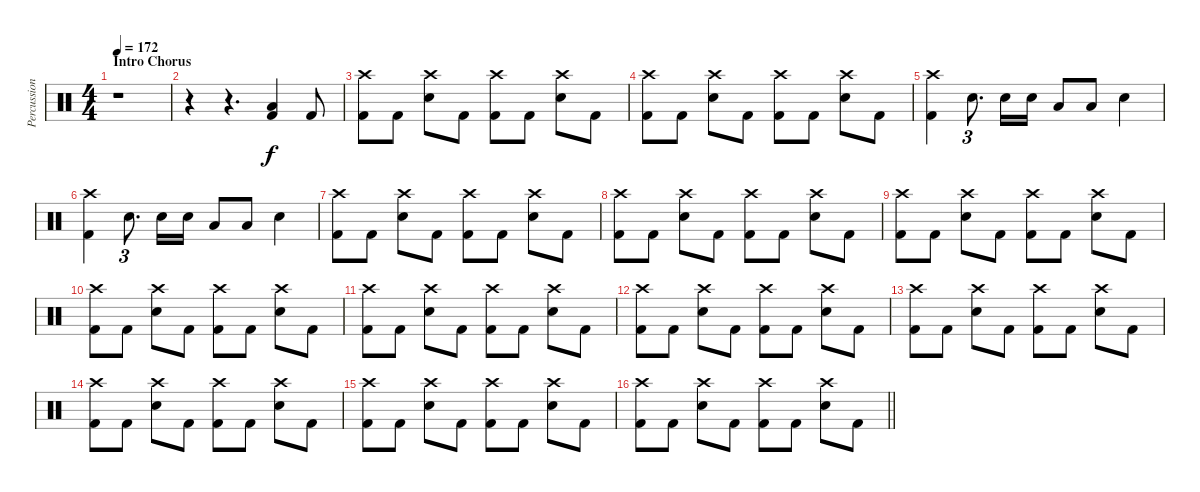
\track ("Percussion" "Percussion") {instrument percussion}
\staff {score}
\articulation defaults
\ts (4 4)
\section ("" "Intro Chorus")
\tempo 172
\clef neutral
\ks c
r.1{dy f} |
r.4 r.4{d} ("Low Tom (hit)" "Kick (hit) 2").4 "Kick (hit) 2".8 |
("Crash high (hit)" "Kick (hit) 2").8 "Kick (hit) 2".8 ("Crash high (hit)" "Electric Snare (hit)").8 "Kick (hit) 2".8 ("Crash high (hit)" "Kick (hit) 2").8 "Kick (hit) 2".8 ("Crash high (hit)" "Electric Snare (hit)").8 "Kick (hit) 2".8 |
("Crash high (hit)" "Kick (hit) 2").8 "Kick (hit) 2".8 ("Crash high (hit)" "Electric Snare (hit)").8 "Kick (hit) 2".8 ("Crash high (hit)" "Kick (hit) 2").8 "Kick (hit) 2".8 ("Crash high (hit)" "Electric Snare (hit)").8 "Kick (hit) 2".8 |
("Crash high (hit)" "Kick (hit) 2").4 "Electric Snare (hit)".8{d tu (3 2)} "Electric Snare (hit)".16 "Electric Snare (hit)".16 "Low Tom (hit)".8 "Low Tom (hit)".8 "Electric Snare (hit)".4 |
("Crash high (hit)" "Kick (hit) 2").4 "Electric Snare (hit)".8{d tu (3 2)} "Electric Snare (hit)".16 "Electric Snare (hit)".16 "Low Tom (hit)".8 "Low Tom (hit)".8 "Electric Snare (hit)".4 |
("Crash high (hit)" "Kick (hit) 2").8 "Kick (hit) 2".8 ("Crash high (hit)" "Electric Snare (hit)").8 "Kick (hit) 2".8 ("Crash high (hit)" "Kick (hit) 2").8 "Kick (hit) 2".8 ("Crash high (hit)" "Electric Snare (hit)").8 "Kick (hit) 2".8 |
("Crash high (hit)" "Kick (hit) 2").8 "Kick (hit) 2".8 ("Crash high (hit)" "Electric Snare (hit)").8 "Kick (hit) 2".8 ("Crash high (hit)" "Kick (hit) 2").8 "Kick (hit) 2".8 ("Crash high (hit)" "Electric Snare (hit)").8 "Kick (hit) 2".8 |
("Crash high (hit)" "Kick (hit) 2").8 "Kick (hit) 2".8 ("Crash high (hit)" "Electric Snare (hit)").8 "Kick (hit) 2".8 ("Crash high (hit)" "Kick (hit) 2").8 "Kick (hit) 2".8 ("Crash high (hit)" "Electric Snare (hit)").8 "Kick (hit) 2".8 |
("Crash high (hit)" "Kick (hit) 2").8 "Kick (hit) 2".8 ("Crash high (hit)" "Electric Snare (hit)").8 "Kick (hit) 2".8 ("Crash high (hit)" "Kick (hit) 2").8 "Kick (hit) 2".8 ("Crash high (hit)" "Electric Snare (hit)").8 "Kick (hit) 2".8 |
("Crash high (hit)" "Kick (hit) 2").8 "Kick (hit) 2".8 ("Crash high (hit)" "Electric Snare (hit)").8 "Kick (hit) 2".8 ("Crash high (hit)" "Kick (hit) 2").8 "Kick (hit) 2".8 ("Crash high (hit)" "Electric Snare (hit)").8 "Kick (hit) 2".8 |
("Crash high (hit)" "Kick (hit) 2").8 "Kick (hit) 2".8 ("Crash high (hit)" "Electric Snare (hit)").8 "Kick (hit) 2".8 ("Crash high (hit)" "Kick (hit) 2").8 "Kick (hit) 2".8 ("Crash high (hit)" "Electric Snare (hit)").8 "Kick (hit) 2".8 |
("Crash high (hit)" "Kick (hit) 2").8 "Kick (hit) 2".8 ("Crash high (hit)" "Electric Snare (hit)").8 "Kick (hit) 2".8 ("Crash high (hit)" "Kick (hit) 2").8 "Kick (hit) 2".8 ("Crash high (hit)" "Electric Snare (hit)").8 "Kick (hit) 2".8 |
("Crash high (hit)" "Kick (hit) 2").8 "Kick (hit) 2".8 ("Crash high (hit)" "Electric Snare (hit)").8 "Kick (hit) 2".8 ("Crash high (hit)" "Kick (hit) 2").8 "Kick (hit) 2".8 ("Crash high (hit)" "Electric Snare (hit)").8 "Kick (hit) 2".8 |
("Crash high (hit)" "Kick (hit) 2").8 "Kick (hit) 2".8 ("Crash high (hit)" "Electric Snare (hit)").8 "Kick (hit) 2".8 ("Crash high (hit)" "Kick (hit) 2").8 "Kick (hit) 2".8 ("Crash high (hit)" "Electric Snare (hit)").8 "Kick (hit) 2".8 |
\barLineRight lightlight
("Crash high (hit)" "Kick (hit) 2").8 "Kick (hit) 2".8 ("Crash high (hit)" "Electric Snare (hit)").8 "Kick (hit) 2".8 ("Crash high (hit)" "Kick (hit) 2").8 "Kick (hit) 2".8 ("Crash high (hit)" "Electric Snare (hit)").8 "Kick (hit) 2".8
